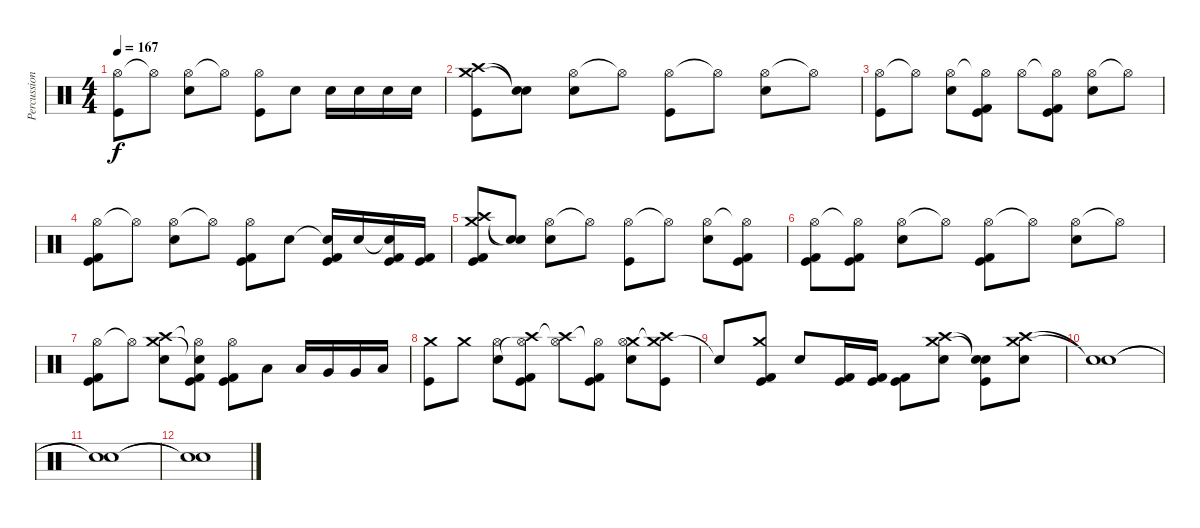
\track ("Percussions" "Percussion") {instrument percussion}
\staff {score}
\articulation defaults
\ts (4 4)
\tempo 167
\clef neutral
\ks c
("Hi-Hat (open)" "Kick (hit)").8{dy f volume 15} "Hi-Hat (open)"{t}.8 ("Hi-Hat (open)" "Electric Snare (hit)").8 "Hi-Hat (open)"{t}.8 ("Hi-Hat (open)" "Kick (hit)").8 "Electric Snare (hit)".8 "Electric Snare (hit)".16 "Electric Snare (hit)".16 "Electric Snare (hit)".16 "Electric Snare (hit)".16 |
("Crash high (hit)" "Crash medium (hit)" "Kick (hit)").8 ("Snare (hit)"{t} "Snare (hit)"{t}).8 ("Hi-Hat (open)" "Electric Snare (hit)").8 "Hi-Hat (open)"{t}.8 ("Hi-Hat (open)" "Kick (hit)").8 "Hi-Hat (open)"{t}.8 ("Hi-Hat (open)" "Electric Snare (hit)").8 "Hi-Hat (open)"{t}.8 |
("Hi-Hat (open)" "Kick (hit)").8 "Hi-Hat (open)"{t}.8 ("Hi-Hat (open)" "Electric Snare (hit)").8 ("Hi-Hat (open)"{t} "Kick (hit) 2" "Kick (hit)").8 "Hi-Hat (open)".8 ("Hi-Hat (open)"{t} "Kick (hit) 2" "Kick (hit)").8 ("Hi-Hat (open)" "Electric Snare (hit)").8 "Hi-Hat (open)"{t}.8 |
("Hi-Hat (open)" "Kick (hit) 2" "Kick (hit)").8{volume 15} "Hi-Hat (open)"{t}.8 ("Hi-Hat (open)" "Electric Snare (hit)").8 "Hi-Hat (open)"{t}.8 ("Hi-Hat (open)" "Kick (hit) 2" "Kick (hit)").8 "Electric Snare (hit)".8 ("Electric Snare (hit)"{t} "Kick (hit) 2" "Kick (hit)").16 "Electric Snare (hit)".16 ("Electric Snare (hit)"{t} "Kick (hit) 2" "Kick (hit)").16 ("Kick (hit) 2" "Kick (hit)").16 |
("Crash high (hit)" "Crash medium (hit)" "Kick (hit) 2" "Kick (hit)").8 ("Snare (hit)"{t} "Snare (hit)"{t}).8 ("Hi-Hat (open)" "Electric Snare (hit)").8 "Hi-Hat (open)"{t}.8 ("Hi-Hat (open)" "Kick (hit)").8 "Hi-Hat (open)"{t}.8 ("Hi-Hat (open)" "Electric Snare (hit)").8 ("Hi-Hat (open)"{t} "Kick (hit) 2" "Kick (hit)").8 |
("Hi-Hat (open)" "Kick (hit) 2" "Kick (hit)").8 ("Hi-Hat (open)"{t} "Kick (hit) 2" "Kick (hit)").8 ("Hi-Hat (open)" "Electric Snare (hit)").8 "Hi-Hat (open)"{t}.8 ("Hi-Hat (open)" "Kick (hit) 2" "Kick (hit)").8 "Hi-Hat (open)"{t}.8 ("Hi-Hat (open)" "Electric Snare (hit)").8 "Hi-Hat (open)"{t}.8 |
("Hi-Hat (open)" "Kick (hit) 2" "Kick (hit)").8{volume 15} "Hi-Hat (open)"{t}.8 ("Crash medium (hit)" "Crash high (hit)" "Electric Snare (hit)").8 ("Snare (hit)"{t} "Hi-Hat (open)"{t} "Kick (hit) 2" "Kick (hit)").8 ("Hi-Hat (open)" "Kick (hit) 2" "Kick (hit)").8 "Low Tom (hit)".8 "Low Tom (hit)".16 "Very Low Tom (hit)".16 "Very Low Tom (hit)".16 "Low Floor Tom (hit)".16 |
("Crash medium (hit)" "Kick (hit)").8 "Crash medium (hit)".8 ("Hi-Hat (open)" "Electric Snare (hit)").8 ("Crash high (hit)" "Hi-Hat (open)"{t} "Kick (hit) 2" "Kick (hit)").8 ("Crash high (hit)"{t} "Hi-Hat (open)").8 ("Hi-Hat (open)"{t} "Kick (hit) 2" "Kick (hit)").8 ("Crash medium (hit)" "Hi-Hat (open)" "Electric Snare (hit)").8 ("Crash medium (hit)"{t} "Crash high (hit)" "Kick (hit)").8 |
"Snare (hit)"{t}.8 ("Crash medium (hit)" "Kick (hit) 2" "Kick (hit)").8 "Electric Snare (hit)".8 ("Kick (hit) 2" "Kick (hit)").16 ("Kick (hit) 2" "Kick (hit)").16 ("Kick (hit) 2" "Kick (hit)").8 ("Crash medium (hit)" "Crash high (hit)" "Electric Snare (hit)").8 ("Snare (hit)"{t} "Snare (hit)"{t} "Kick (hit)").8 ("Crash medium (hit)" "Crash high (hit)" "Electric Snare (hit)").8 |
("Snare (hit)"{t} "Snare (hit)"{t}).1{volume 8} |
("Snare (hit)"{t} "Snare (hit)"{t}).1{volume 1} |
("Snare (hit)"{t} "Snare (hit)"{t}).1
